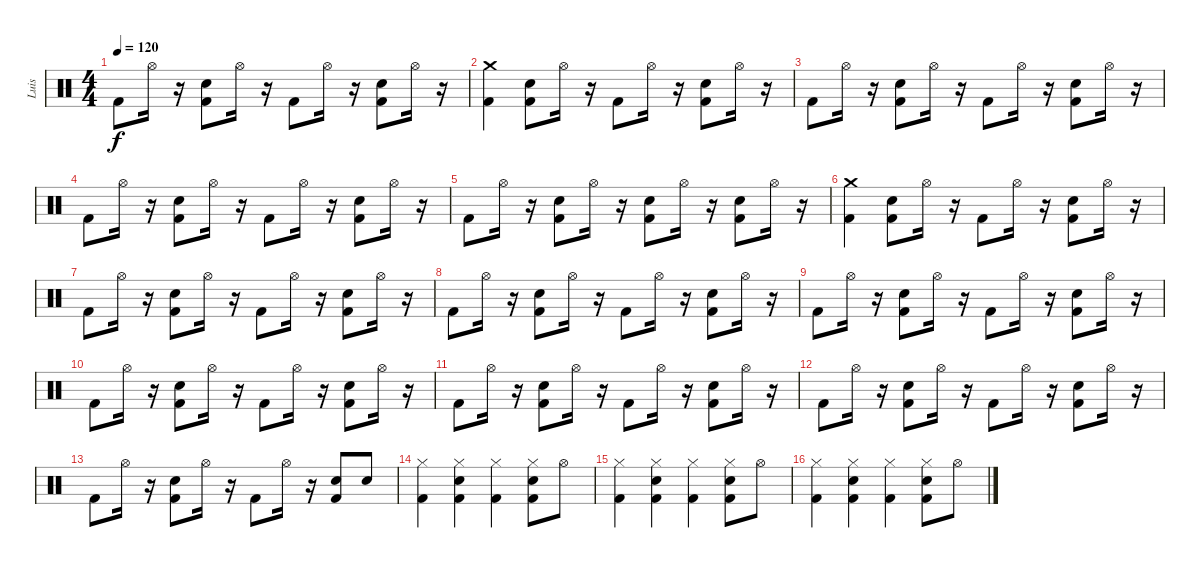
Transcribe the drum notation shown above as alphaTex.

\track ("Luis" "Luis") {instrument percussion}
\staff {score}
\articulation defaults
\ts (4 4)
\tempo 120
\clef neutral
\ks c "Kick (hit) 2".8{dy f} "Hi-Hat (open)".16
r.16 ("Electric Snare (hit)" "Kick (hit) 2").8 "Hi-Hat (open)".16 r.16 "Kick (hit) 2".8 "Hi-Hat (open)".16 r.16 ("Electric Snare (hit)" "Kick (hit) 2").8 "Hi-Hat (open)".16 r.16 |
("Crash medium (hit)" "Kick (hit) 2").4 ("Electric Snare (hit)" "Kick (hit) 2").8 "Hi-Hat (open)".16 r.16 "Kick (hit) 2".8 "Hi-Hat (open)".16 r.16 ("Electric Snare (hit)" "Kick (hit) 2").8 "Hi-Hat (open)".16 r.16 |
"Kick (hit) 2".8 "Hi-Hat (open)".16 r.16 ("Electric Snare (hit)" "Kick (hit) 2").8 "Hi-Hat (open)".16 r.16 "Kick (hit) 2".8 "Hi-Hat (open)".16 r.16 ("Electric Snare (hit)" "Kick (hit) 2").8 "Hi-Hat (open)".16 r.16 |
"Kick (hit) 2".8 "Hi-Hat (open)".16 r.16 ("Electric Snare (hit)" "Kick (hit) 2").8 "Hi-Hat (open)".16 r.16 "Kick (hit) 2".8 "Hi-Hat (open)".16 r.16 ("Electric Snare (hit)" "Kick (hit) 2").8 "Hi-Hat (open)".16 r.16 |
"Kick (hit) 2".8 "Hi-Hat (open)".16 r.16 ("Electric Snare (hit)" "Kick (hit) 2").8 "Hi-Hat (open)".16 r.16 ("Electric Snare (hit)" "Kick (hit) 2").8 "Hi-Hat (open)".16 r.16 ("Electric Snare (hit)" "Kick (hit) 2").8 "Hi-Hat (open)".16 r.16 |
("Crash medium (hit)" "Kick (hit) 2").4 ("Electric Snare (hit)" "Kick (hit) 2").8 "Hi-Hat (open)".16 r.16 "Kick (hit) 2".8 "Hi-Hat (open)".16 r.16 ("Electric Snare (hit)" "Kick (hit) 2").8 "Hi-Hat (open)".16 r.16 |
"Kick (hit) 2".8 "Hi-Hat (open)".16 r.16 ("Electric Snare (hit)" "Kick (hit) 2").8 "Hi-Hat (open)".16 r.16 "Kick (hit) 2".8 "Hi-Hat (open)".16 r.16 ("Electric Snare (hit)" "Kick (hit) 2").8 "Hi-Hat (open)".16 r.16 |
"Kick (hit) 2".8 "Hi-Hat (open)".16 r.16 ("Electric Snare (hit)" "Kick (hit) 2").8 "Hi-Hat (open)".16 r.16 "Kick (hit) 2".8 "Hi-Hat (open)".16 r.16 ("Electric Snare (hit)" "Kick (hit) 2").8 "Hi-Hat (open)".16 r.16 |
"Kick (hit) 2".8 "Hi-Hat (open)".16 r.16 ("Electric Snare (hit)" "Kick (hit) 2").8 "Hi-Hat (open)".16 r.16 "Kick (hit) 2".8 "Hi-Hat (open)".16 r.16 ("Electric Snare (hit)" "Kick (hit) 2").8 "Hi-Hat (open)".16 r.16 |
"Kick (hit) 2".8 "Hi-Hat (open)".16 r.16 ("Electric Snare (hit)" "Kick (hit) 2").8 "Hi-Hat (open)".16 r.16 "Kick (hit) 2".8 "Hi-Hat (open)".16 r.16 ("Electric Snare (hit)" "Kick (hit) 2").8 "Hi-Hat (open)".16 r.16 |
"Kick (hit) 2".8 "Hi-Hat (open)".16 r.16 ("Electric Snare (hit)" "Kick (hit) 2").8 "Hi-Hat (open)".16 r.16 "Kick (hit) 2".8 "Hi-Hat (open)".16 r.16 ("Electric Snare (hit)" "Kick (hit) 2").8 "Hi-Hat (open)".16 r.16 |
"Kick (hit) 2".8 "Hi-Hat (open)".16 r.16 ("Electric Snare (hit)" "Kick (hit) 2").8 "Hi-Hat (open)".16 r.16 "Kick (hit) 2".8 "Hi-Hat (open)".16 r.16 ("Electric Snare (hit)" "Kick (hit) 2").8 "Hi-Hat (open)".16 r.16 |
"Kick (hit) 2".8 "Hi-Hat (open)".16 r.16 ("Electric Snare (hit)" "Kick (hit) 2").8 "Hi-Hat (open)".16 r.16 "Kick (hit) 2".8 "Hi-Hat (open)".16 r.16 ("Electric Snare (hit)" "Kick (hit) 2").8 "Electric Snare (hit)".8 |
("Hi-Hat (closed)" "Kick (hit) 2").4 ("Hi-Hat (closed)" "Electric Snare (hit)" "Kick (hit) 2").4 ("Hi-Hat (closed)" "Kick (hit) 2").4 ("Hi-Hat (closed)" "Electric Snare (hit)" "Kick (hit) 2").8 "Hi-Hat (open)".8 |
("Hi-Hat (closed)" "Kick (hit) 2").4 ("Hi-Hat (closed)" "Electric Snare (hit)" "Kick (hit) 2").4 ("Hi-Hat (closed)" "Kick (hit) 2").4 ("Hi-Hat (closed)" "Electric Snare (hit)" "Kick (hit) 2").8 "Hi-Hat (open)".8 |
("Hi-Hat (closed)" "Kick (hit) 2").4 ("Hi-Hat (closed)" "Electric Snare (hit)" "Kick (hit) 2").4 ("Hi-Hat (closed)" "Kick (hit) 2").4 ("Hi-Hat (closed)" "Electric Snare (hit)" "Kick (hit) 2").8 "Hi-Hat (open)".8
